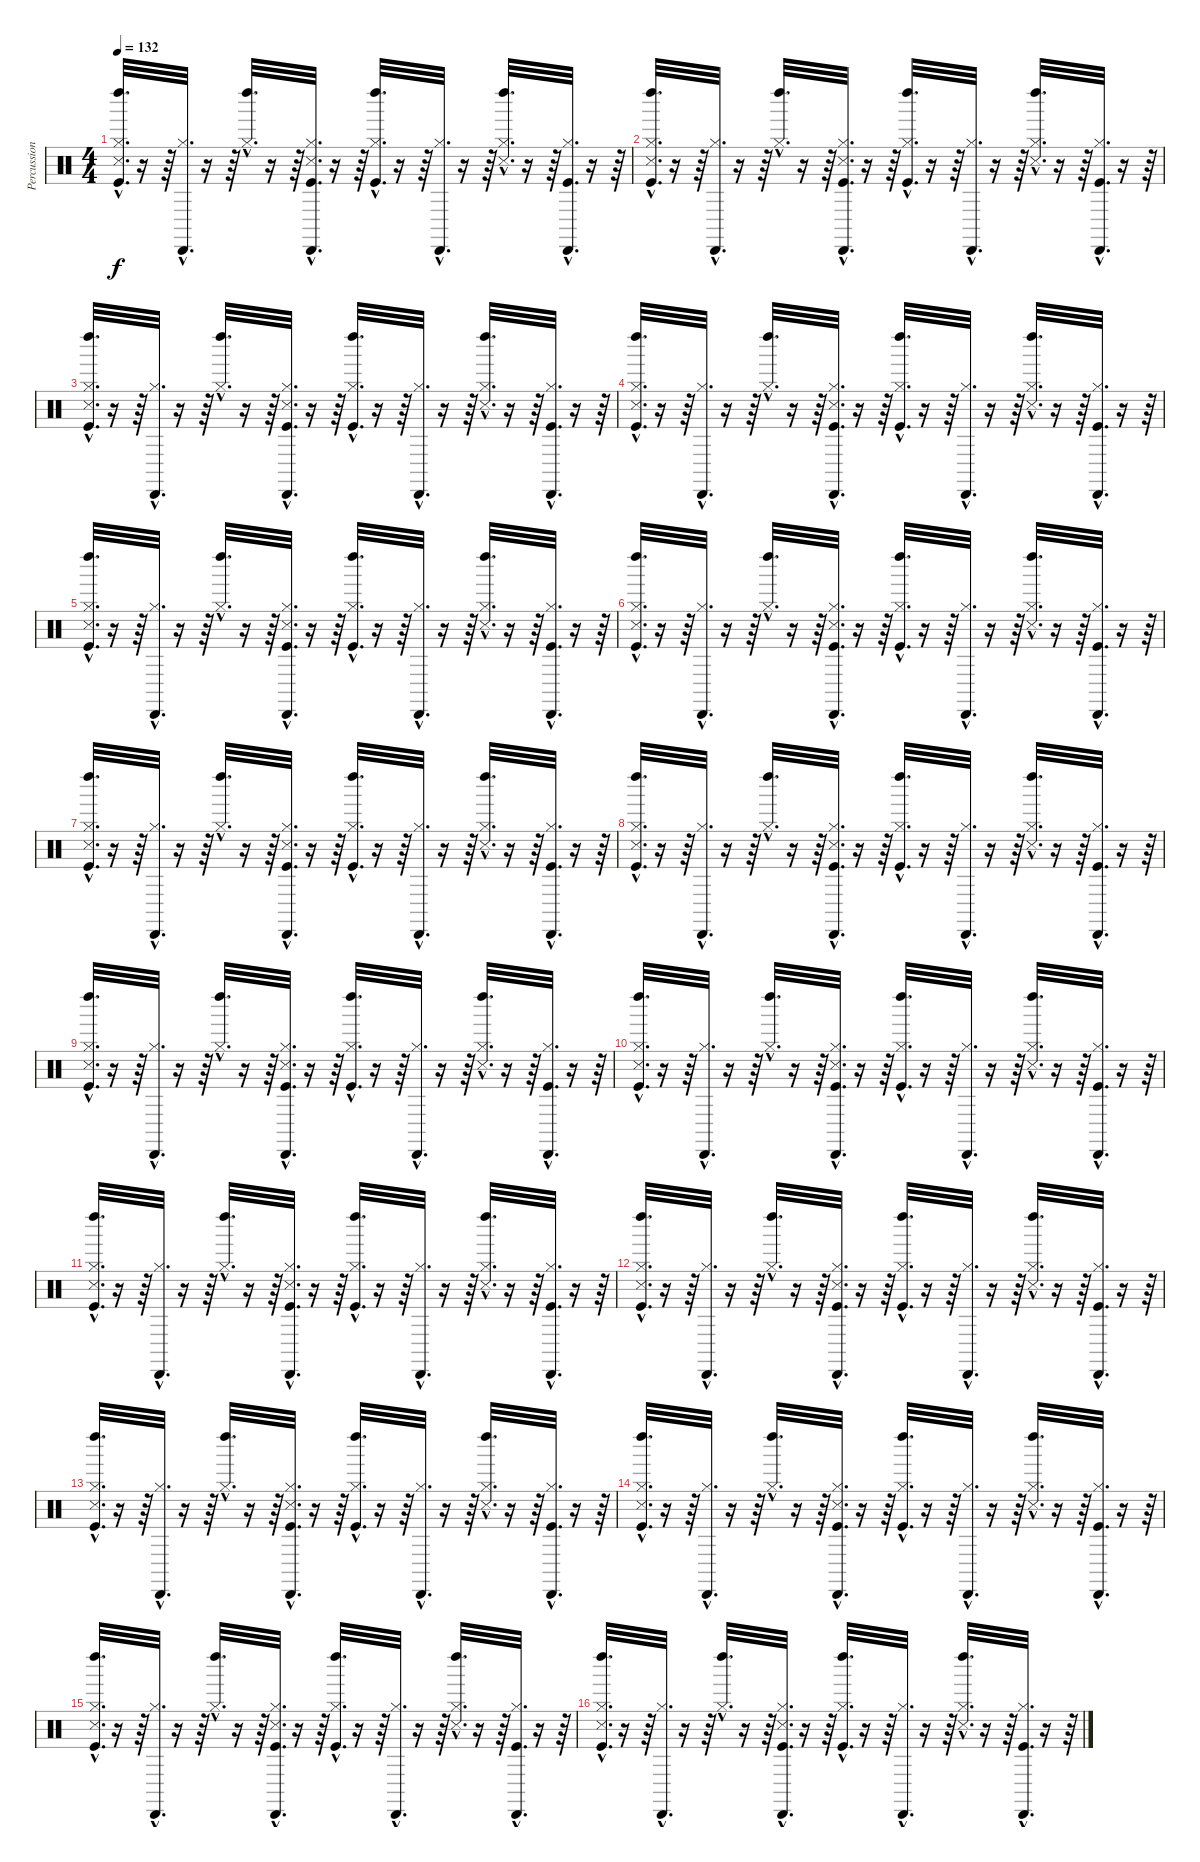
\track ("Percussions" "Percussion") {instrument percussion}
\staff {score}
\articulation defaults
\ts (4 4)
\tempo 132
\clef neutral
\ks c
("Kick (hit)"{hac} "Hi-Hat (closed)"{hac} "Snare (side stick) 3"{hac} "Left Maraca (hit)"{hac}).32{d dy f} r.16 r.64 ("Hi-Hat (closed)"{hac} "Cabasa (hit)"{hac}).32{d} r.16 r.64 ("Hi-Hat (closed)"{hac} "Left Maraca (hit)"{hac}).32{d} r.16 r.64 ("Kick (hit)"{hac} "Hi-Hat (closed)"{hac} "Snare (side stick) 3"{hac} "Cabasa (hit)"{hac}).32{d} r.16 r.64 ("Kick (hit)"{hac} "Hi-Hat (closed)"{hac} "Left Maraca (hit)"{hac}).32{d} r.16 r.64 ("Hi-Hat (closed)"{hac} "Cabasa (hit)"{hac}).32{d} r.16 r.64 ("Hi-Hat (closed)"{hac} "Snare (side stick) 3"{hac} "Left Maraca (hit)"{hac}).32{d} r.16 r.64 ("Kick (hit)"{hac} "Hi-Hat (closed)"{hac} "Cabasa (hit)"{hac}).32{d} r.16 r.64 |
("Kick (hit)"{hac} "Hi-Hat (closed)"{hac} "Snare (side stick) 3"{hac} "Left Maraca (hit)"{hac}).32{d} r.16 r.64 ("Hi-Hat (closed)"{hac} "Cabasa (hit)"{hac}).32{d} r.16 r.64 ("Hi-Hat (closed)"{hac} "Left Maraca (hit)"{hac}).32{d} r.16 r.64 ("Kick (hit)"{hac} "Hi-Hat (closed)"{hac} "Snare (side stick) 3"{hac} "Cabasa (hit)"{hac}).32{d} r.16 r.64 ("Kick (hit)"{hac} "Hi-Hat (closed)"{hac} "Left Maraca (hit)"{hac}).32{d} r.16 r.64 ("Hi-Hat (closed)"{hac} "Cabasa (hit)"{hac}).32{d} r.16 r.64 ("Hi-Hat (closed)"{hac} "Snare (side stick) 3"{hac} "Left Maraca (hit)"{hac}).32{d} r.16 r.64 ("Kick (hit)"{hac} "Hi-Hat (closed)"{hac} "Cabasa (hit)"{hac}).32{d} r.16 r.64 |
("Kick (hit)"{hac} "Hi-Hat (closed)"{hac} "Snare (side stick) 3"{hac} "Left Maraca (hit)"{hac}).32{d} r.16 r.64 ("Hi-Hat (closed)"{hac} "Cabasa (hit)"{hac}).32{d} r.16 r.64 ("Hi-Hat (closed)"{hac} "Left Maraca (hit)"{hac}).32{d} r.16 r.64 ("Kick (hit)"{hac} "Hi-Hat (closed)"{hac} "Snare (side stick) 3"{hac} "Cabasa (hit)"{hac}).32{d} r.16 r.64 ("Kick (hit)"{hac} "Hi-Hat (closed)"{hac} "Left Maraca (hit)"{hac}).32{d} r.16 r.64 ("Hi-Hat (closed)"{hac} "Cabasa (hit)"{hac}).32{d} r.16 r.64 ("Hi-Hat (closed)"{hac} "Snare (side stick) 3"{hac} "Left Maraca (hit)"{hac}).32{d} r.16 r.64 ("Kick (hit)"{hac} "Hi-Hat (closed)"{hac} "Cabasa (hit)"{hac}).32{d} r.16 r.64 |
("Kick (hit)"{hac} "Hi-Hat (closed)"{hac} "Snare (side stick) 3"{hac} "Left Maraca (hit)"{hac}).32{d} r.16 r.64 ("Hi-Hat (closed)"{hac} "Cabasa (hit)"{hac}).32{d} r.16 r.64 ("Hi-Hat (closed)"{hac} "Left Maraca (hit)"{hac}).32{d} r.16 r.64 ("Kick (hit)"{hac} "Hi-Hat (closed)"{hac} "Snare (side stick) 3"{hac} "Cabasa (hit)"{hac}).32{d} r.16 r.64 ("Kick (hit)"{hac} "Hi-Hat (closed)"{hac} "Left Maraca (hit)"{hac}).32{d} r.16 r.64 ("Hi-Hat (closed)"{hac} "Cabasa (hit)"{hac}).32{d} r.16 r.64 ("Hi-Hat (closed)"{hac} "Snare (side stick) 3"{hac} "Left Maraca (hit)"{hac}).32{d} r.16 r.64 ("Kick (hit)"{hac} "Hi-Hat (closed)"{hac} "Cabasa (hit)"{hac}).32{d} r.16 r.64 |
("Kick (hit)"{hac} "Hi-Hat (closed)"{hac} "Snare (side stick) 3"{hac} "Left Maraca (hit)"{hac}).32{d} r.16 r.64 ("Hi-Hat (closed)"{hac} "Cabasa (hit)"{hac}).32{d} r.16 r.64 ("Hi-Hat (closed)"{hac} "Left Maraca (hit)"{hac}).32{d} r.16 r.64 ("Kick (hit)"{hac} "Hi-Hat (closed)"{hac} "Snare (side stick) 3"{hac} "Cabasa (hit)"{hac}).32{d} r.16 r.64 ("Kick (hit)"{hac} "Hi-Hat (closed)"{hac} "Left Maraca (hit)"{hac}).32{d} r.16 r.64 ("Hi-Hat (closed)"{hac} "Cabasa (hit)"{hac}).32{d} r.16 r.64 ("Hi-Hat (closed)"{hac} "Snare (side stick) 3"{hac} "Left Maraca (hit)"{hac}).32{d} r.16 r.64 ("Kick (hit)"{hac} "Hi-Hat (closed)"{hac} "Cabasa (hit)"{hac}).32{d} r.16 r.64 |
("Kick (hit)"{hac} "Hi-Hat (closed)"{hac} "Snare (side stick) 3"{hac} "Left Maraca (hit)"{hac}).32{d} r.16 r.64 ("Hi-Hat (closed)"{hac} "Cabasa (hit)"{hac}).32{d} r.16 r.64 ("Hi-Hat (closed)"{hac} "Left Maraca (hit)"{hac}).32{d} r.16 r.64 ("Kick (hit)"{hac} "Hi-Hat (closed)"{hac} "Snare (side stick) 3"{hac} "Cabasa (hit)"{hac}).32{d} r.16 r.64 ("Kick (hit)"{hac} "Hi-Hat (closed)"{hac} "Left Maraca (hit)"{hac}).32{d} r.16 r.64 ("Hi-Hat (closed)"{hac} "Cabasa (hit)"{hac}).32{d} r.16 r.64 ("Hi-Hat (closed)"{hac} "Snare (side stick) 3"{hac} "Left Maraca (hit)"{hac}).32{d} r.16 r.64 ("Kick (hit)"{hac} "Hi-Hat (closed)"{hac} "Cabasa (hit)"{hac}).32{d} r.16 r.64 |
("Kick (hit)"{hac} "Hi-Hat (closed)"{hac} "Snare (side stick) 3"{hac} "Left Maraca (hit)"{hac}).32{d} r.16 r.64 ("Hi-Hat (closed)"{hac} "Cabasa (hit)"{hac}).32{d} r.16 r.64 ("Hi-Hat (closed)"{hac} "Left Maraca (hit)"{hac}).32{d} r.16 r.64 ("Kick (hit)"{hac} "Hi-Hat (closed)"{hac} "Snare (side stick) 3"{hac} "Cabasa (hit)"{hac}).32{d} r.16 r.64 ("Kick (hit)"{hac} "Hi-Hat (closed)"{hac} "Left Maraca (hit)"{hac}).32{d} r.16 r.64 ("Hi-Hat (closed)"{hac} "Cabasa (hit)"{hac}).32{d} r.16 r.64 ("Hi-Hat (closed)"{hac} "Snare (side stick) 3"{hac} "Left Maraca (hit)"{hac}).32{d} r.16 r.64 ("Kick (hit)"{hac} "Hi-Hat (closed)"{hac} "Cabasa (hit)"{hac}).32{d} r.16 r.64 |
("Kick (hit)"{hac} "Hi-Hat (closed)"{hac} "Snare (side stick) 3"{hac} "Left Maraca (hit)"{hac}).32{d} r.16 r.64 ("Hi-Hat (closed)"{hac} "Cabasa (hit)"{hac}).32{d} r.16 r.64 ("Hi-Hat (closed)"{hac} "Left Maraca (hit)"{hac}).32{d} r.16 r.64 ("Kick (hit)"{hac} "Hi-Hat (closed)"{hac} "Snare (side stick) 3"{hac} "Cabasa (hit)"{hac}).32{d} r.16 r.64 ("Kick (hit)"{hac} "Hi-Hat (closed)"{hac} "Left Maraca (hit)"{hac}).32{d} r.16 r.64 ("Hi-Hat (closed)"{hac} "Cabasa (hit)"{hac}).32{d} r.16 r.64 ("Hi-Hat (closed)"{hac} "Snare (side stick) 3"{hac} "Left Maraca (hit)"{hac}).32{d} r.16 r.64 ("Kick (hit)"{hac} "Hi-Hat (closed)"{hac} "Cabasa (hit)"{hac}).32{d} r.16 r.64 |
("Kick (hit)"{hac} "Hi-Hat (closed)"{hac} "Snare (side stick) 3"{hac} "Left Maraca (hit)"{hac}).32{d} r.16 r.64 ("Hi-Hat (closed)"{hac} "Cabasa (hit)"{hac}).32{d} r.16 r.64 ("Hi-Hat (closed)"{hac} "Left Maraca (hit)"{hac}).32{d} r.16 r.64 ("Kick (hit)"{hac} "Hi-Hat (closed)"{hac} "Snare (side stick) 3"{hac} "Cabasa (hit)"{hac}).32{d} r.16 r.64 ("Kick (hit)"{hac} "Hi-Hat (closed)"{hac} "Left Maraca (hit)"{hac}).32{d} r.16 r.64 ("Hi-Hat (closed)"{hac} "Cabasa (hit)"{hac}).32{d} r.16 r.64 ("Hi-Hat (closed)"{hac} "Snare (side stick) 3"{hac} "Left Maraca (hit)"{hac}).32{d} r.16 r.64 ("Kick (hit)"{hac} "Hi-Hat (closed)"{hac} "Cabasa (hit)"{hac}).32{d} r.16 r.64 |
("Kick (hit)"{hac} "Hi-Hat (closed)"{hac} "Snare (side stick) 3"{hac} "Left Maraca (hit)"{hac}).32{d} r.16 r.64 ("Hi-Hat (closed)"{hac} "Cabasa (hit)"{hac}).32{d} r.16 r.64 ("Hi-Hat (closed)"{hac} "Left Maraca (hit)"{hac}).32{d} r.16 r.64 ("Kick (hit)"{hac} "Hi-Hat (closed)"{hac} "Snare (side stick) 3"{hac} "Cabasa (hit)"{hac}).32{d} r.16 r.64 ("Kick (hit)"{hac} "Hi-Hat (closed)"{hac} "Left Maraca (hit)"{hac}).32{d} r.16 r.64 ("Hi-Hat (closed)"{hac} "Cabasa (hit)"{hac}).32{d} r.16 r.64 ("Hi-Hat (closed)"{hac} "Snare (side stick) 3"{hac} "Left Maraca (hit)"{hac}).32{d} r.16 r.64 ("Kick (hit)"{hac} "Hi-Hat (closed)"{hac} "Cabasa (hit)"{hac}).32{d} r.16 r.64 |
("Kick (hit)"{hac} "Hi-Hat (closed)"{hac} "Snare (side stick) 3"{hac} "Left Maraca (hit)"{hac}).32{d} r.16 r.64 ("Hi-Hat (closed)"{hac} "Cabasa (hit)"{hac}).32{d} r.16 r.64 ("Hi-Hat (closed)"{hac} "Left Maraca (hit)"{hac}).32{d} r.16 r.64 ("Kick (hit)"{hac} "Hi-Hat (closed)"{hac} "Snare (side stick) 3"{hac} "Cabasa (hit)"{hac}).32{d} r.16 r.64 ("Kick (hit)"{hac} "Hi-Hat (closed)"{hac} "Left Maraca (hit)"{hac}).32{d} r.16 r.64 ("Hi-Hat (closed)"{hac} "Cabasa (hit)"{hac}).32{d} r.16 r.64 ("Hi-Hat (closed)"{hac} "Snare (side stick) 3"{hac} "Left Maraca (hit)"{hac}).32{d} r.16 r.64 ("Kick (hit)"{hac} "Hi-Hat (closed)"{hac} "Cabasa (hit)"{hac}).32{d} r.16 r.64 |
("Kick (hit)"{hac} "Hi-Hat (closed)"{hac} "Snare (side stick) 3"{hac} "Left Maraca (hit)"{hac}).32{d} r.16 r.64 ("Hi-Hat (closed)"{hac} "Cabasa (hit)"{hac}).32{d} r.16 r.64 ("Hi-Hat (closed)"{hac} "Left Maraca (hit)"{hac}).32{d} r.16 r.64 ("Kick (hit)"{hac} "Hi-Hat (closed)"{hac} "Snare (side stick) 3"{hac} "Cabasa (hit)"{hac}).32{d} r.16 r.64 ("Kick (hit)"{hac} "Hi-Hat (closed)"{hac} "Left Maraca (hit)"{hac}).32{d} r.16 r.64 ("Hi-Hat (closed)"{hac} "Cabasa (hit)"{hac}).32{d} r.16 r.64 ("Hi-Hat (closed)"{hac} "Snare (side stick) 3"{hac} "Left Maraca (hit)"{hac}).32{d} r.16 r.64 ("Kick (hit)"{hac} "Hi-Hat (closed)"{hac} "Cabasa (hit)"{hac}).32{d} r.16 r.64 |
("Kick (hit)"{hac} "Hi-Hat (closed)"{hac} "Snare (side stick) 3"{hac} "Left Maraca (hit)"{hac}).32{d} r.16 r.64 ("Hi-Hat (closed)"{hac} "Cabasa (hit)"{hac}).32{d} r.16 r.64 ("Hi-Hat (closed)"{hac} "Left Maraca (hit)"{hac}).32{d} r.16 r.64 ("Kick (hit)"{hac} "Hi-Hat (closed)"{hac} "Snare (side stick) 3"{hac} "Cabasa (hit)"{hac}).32{d} r.16 r.64 ("Kick (hit)"{hac} "Hi-Hat (closed)"{hac} "Left Maraca (hit)"{hac}).32{d} r.16 r.64 ("Hi-Hat (closed)"{hac} "Cabasa (hit)"{hac}).32{d} r.16 r.64 ("Hi-Hat (closed)"{hac} "Snare (side stick) 3"{hac} "Left Maraca (hit)"{hac}).32{d} r.16 r.64 ("Kick (hit)"{hac} "Hi-Hat (closed)"{hac} "Cabasa (hit)"{hac}).32{d} r.16 r.64 |
("Kick (hit)"{hac} "Hi-Hat (closed)"{hac} "Snare (side stick) 3"{hac} "Left Maraca (hit)"{hac}).32{d} r.16 r.64 ("Hi-Hat (closed)"{hac} "Cabasa (hit)"{hac}).32{d} r.16 r.64 ("Hi-Hat (closed)"{hac} "Left Maraca (hit)"{hac}).32{d} r.16 r.64 ("Kick (hit)"{hac} "Hi-Hat (closed)"{hac} "Snare (side stick) 3"{hac} "Cabasa (hit)"{hac}).32{d} r.16 r.64 ("Kick (hit)"{hac} "Hi-Hat (closed)"{hac} "Left Maraca (hit)"{hac}).32{d} r.16 r.64 ("Hi-Hat (closed)"{hac} "Cabasa (hit)"{hac}).32{d} r.16 r.64 ("Hi-Hat (closed)"{hac} "Snare (side stick) 3"{hac} "Left Maraca (hit)"{hac}).32{d} r.16 r.64 ("Kick (hit)"{hac} "Hi-Hat (closed)"{hac} "Cabasa (hit)"{hac}).32{d} r.16 r.64 |
("Kick (hit)"{hac} "Hi-Hat (closed)"{hac} "Snare (side stick) 3"{hac} "Left Maraca (hit)"{hac}).32{d} r.16 r.64 ("Hi-Hat (closed)"{hac} "Cabasa (hit)"{hac}).32{d} r.16 r.64 ("Hi-Hat (closed)"{hac} "Left Maraca (hit)"{hac}).32{d} r.16 r.64 ("Kick (hit)"{hac} "Hi-Hat (closed)"{hac} "Snare (side stick) 3"{hac} "Cabasa (hit)"{hac}).32{d} r.16 r.64 ("Kick (hit)"{hac} "Hi-Hat (closed)"{hac} "Left Maraca (hit)"{hac}).32{d} r.16 r.64 ("Hi-Hat (closed)"{hac} "Cabasa (hit)"{hac}).32{d} r.16 r.64 ("Hi-Hat (closed)"{hac} "Snare (side stick) 3"{hac} "Left Maraca (hit)"{hac}).32{d} r.16 r.64 ("Kick (hit)"{hac} "Hi-Hat (closed)"{hac} "Cabasa (hit)"{hac}).32{d} r.16 r.64 |
("Kick (hit)"{hac} "Hi-Hat (closed)"{hac} "Snare (side stick) 3"{hac} "Left Maraca (hit)"{hac}).32{d} r.16 r.64 ("Hi-Hat (closed)"{hac} "Cabasa (hit)"{hac}).32{d} r.16 r.64 ("Hi-Hat (closed)"{hac} "Left Maraca (hit)"{hac}).32{d} r.16 r.64 ("Kick (hit)"{hac} "Hi-Hat (closed)"{hac} "Snare (side stick) 3"{hac} "Cabasa (hit)"{hac}).32{d} r.16 r.64 ("Kick (hit)"{hac} "Hi-Hat (closed)"{hac} "Left Maraca (hit)"{hac}).32{d} r.16 r.64 ("Hi-Hat (closed)"{hac} "Cabasa (hit)"{hac}).32{d} r.16 r.64 ("Hi-Hat (closed)"{hac} "Snare (side stick) 3"{hac} "Left Maraca (hit)"{hac}).32{d} r.16 r.64 ("Kick (hit)"{hac} "Hi-Hat (closed)"{hac} "Cabasa (hit)"{hac}).32{d} r.16 r.64
